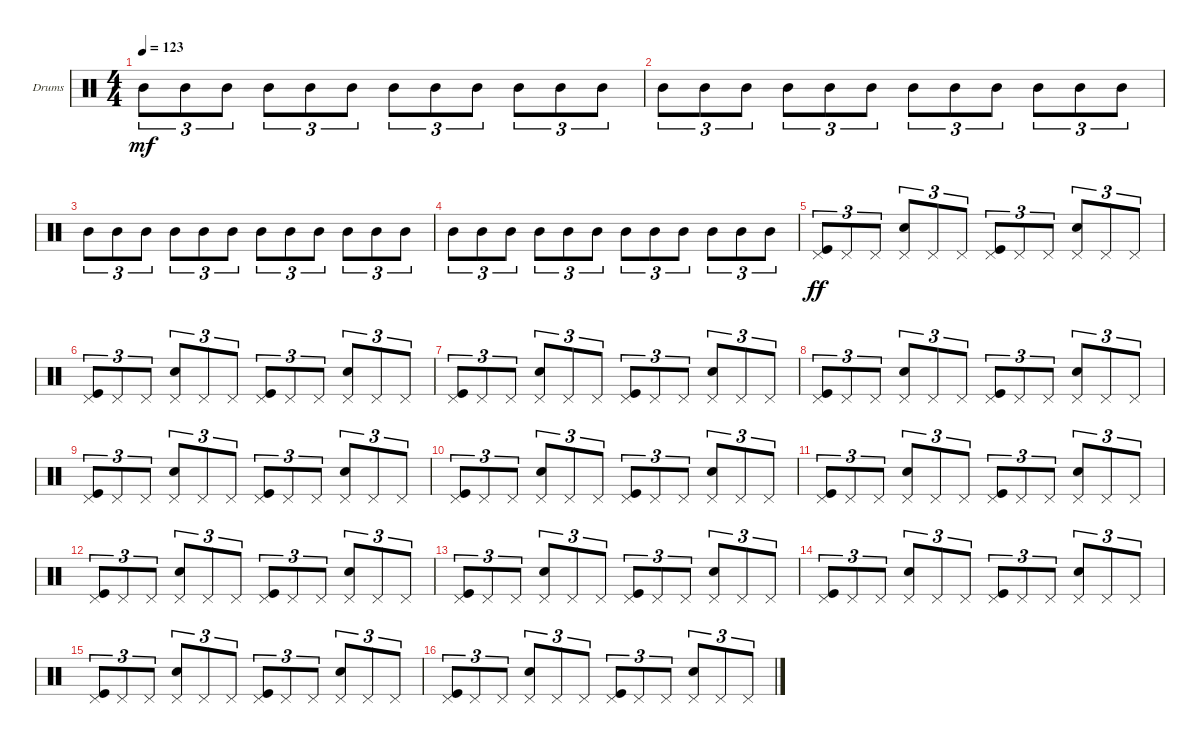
\defaultSystemsLayout 4
\bracketExtendMode groupsimilarinstruments
\firstSystemTrackNameOrientation horizontal
\otherSystemsTrackNameOrientation horizontal
\track ("Drumkit" "Drums") {instrument percussion}
\staff {score}
\articulation defaults
\ts (4 4)
\tempo 123
\clef neutral
\scale
0.333333
\ks c "Mid Tom (hit)".8{tu (3 2) dy mf} "Mid Tom (hit)".8{tu (3 2)} "Mid Tom (hit)".8{tu (3 2)} "Mid Tom (hit)".8{tu (3 2)} "Mid Tom (hit)".8{tu (3 2)} "Mid Tom (hit)".8{tu (3 2)} "Mid Tom (hit)".8{tu (3 2)} "Mid Tom (hit)".8{tu (3 2)} "Mid Tom (hit)".8{tu (3 2)} "Mid Tom (hit)".8{tu (3 2)} "Mid Tom (hit)".8{tu (3 2)} "Mid Tom (hit)".8{tu (3 2)}
|
\scale
0.333333 "Mid Tom (hit)".8{tu (3 2)} "Mid Tom (hit)".8{tu (3 2)} "Mid Tom (hit)".8{tu (3 2)} "Mid Tom (hit)".8{tu (3 2)} "Mid Tom (hit)".8{tu (3 2)} "Mid Tom (hit)".8{tu (3 2)} "Mid Tom (hit)".8{tu (3 2)} "Mid Tom (hit)".8{tu (3 2)} "Mid Tom (hit)".8{tu (3 2)} "Mid Tom (hit)".8{tu (3 2)} "Mid Tom (hit)".8{tu (3 2)} "Mid Tom (hit)".8{tu (3 2)} |
\scale
0.333333 "Mid Tom (hit)".8{tu (3 2)} "Mid Tom (hit)".8{tu (3 2)} "Mid Tom (hit)".8{tu (3 2)} "Mid Tom (hit)".8{tu (3 2)} "Mid Tom (hit)".8{tu (3 2)} "Mid Tom (hit)".8{tu (3 2)} "Mid Tom (hit)".8{tu (3 2)} "Mid Tom (hit)".8{tu (3 2)} "Mid Tom (hit)".8{tu (3 2)} "Mid Tom (hit)".8{tu (3 2)} "Mid Tom (hit)".8{tu (3 2)} "Mid Tom (hit)".8{tu (3 2)} |
\scale
0.333333 "Mid Tom (hit)".8{tu (3 2)} "Mid Tom (hit)".8{tu (3 2)} "Mid Tom (hit)".8{tu (3 2)} "Mid Tom (hit)".8{tu (3 2)} "Mid Tom (hit)".8{tu (3 2)} "Mid Tom (hit)".8{tu (3 2)} "Mid Tom (hit)".8{tu (3 2)} "Mid Tom (hit)".8{tu (3 2)} "Mid Tom (hit)".8{tu (3 2)} "Mid Tom (hit)".8{tu (3 2)} "Mid Tom (hit)".8{tu (3 2)} "Mid Tom (hit)".8{tu (3 2)} |
("Kick (hit)" "Pedal Hi-Hat (hit)").8{tu (3 2) dy ff} "Pedal Hi-Hat (hit)".8{tu (3 2)} "Pedal Hi-Hat (hit)".8{tu (3 2)} ("Snare (hit) 2" "Pedal Hi-Hat (hit)").8{tu (3 2)} "Pedal Hi-Hat (hit)".8{tu (3 2)} "Pedal Hi-Hat (hit)".8{tu (3 2)} ("Kick (hit)" "Pedal Hi-Hat (hit)").8{tu (3 2)} "Pedal Hi-Hat (hit)".8{tu (3 2)} "Pedal Hi-Hat (hit)".8{tu (3 2)} ("Snare (hit) 2" "Pedal Hi-Hat (hit)").8{tu (3 2)} "Pedal Hi-Hat (hit)".8{tu (3 2)} "Pedal Hi-Hat (hit)".8{tu (3 2)} |
("Kick (hit)" "Pedal Hi-Hat (hit)").8{tu (3 2)} "Pedal Hi-Hat (hit)".8{tu (3 2)} "Pedal Hi-Hat (hit)".8{tu (3 2)} ("Snare (hit) 2" "Pedal Hi-Hat (hit)").8{tu (3 2)} "Pedal Hi-Hat (hit)".8{tu (3 2)} "Pedal Hi-Hat (hit)".8{tu (3 2)} ("Kick (hit)" "Pedal Hi-Hat (hit)").8{tu (3 2)} "Pedal Hi-Hat (hit)".8{tu (3 2)} "Pedal Hi-Hat (hit)".8{tu (3 2)} ("Snare (hit) 2" "Pedal Hi-Hat (hit)").8{tu (3 2)} "Pedal Hi-Hat (hit)".8{tu (3 2)} "Pedal Hi-Hat (hit)".8{tu (3 2)} |
("Kick (hit)" "Pedal Hi-Hat (hit)").8{tu (3 2)} "Pedal Hi-Hat (hit)".8{tu (3 2)} "Pedal Hi-Hat (hit)".8{tu (3 2)} ("Snare (hit) 2" "Pedal Hi-Hat (hit)").8{tu (3 2)} "Pedal Hi-Hat (hit)".8{tu (3 2)} "Pedal Hi-Hat (hit)".8{tu (3 2)} ("Kick (hit)" "Pedal Hi-Hat (hit)").8{tu (3 2)} "Pedal Hi-Hat (hit)".8{tu (3 2)} "Pedal Hi-Hat (hit)".8{tu (3 2)} ("Snare (hit) 2" "Pedal Hi-Hat (hit)").8{tu (3 2)} "Pedal Hi-Hat (hit)".8{tu (3 2)} "Pedal Hi-Hat (hit)".8{tu (3 2)} |
("Kick (hit)" "Pedal Hi-Hat (hit)").8{tu (3 2)} "Pedal Hi-Hat (hit)".8{tu (3 2)} "Pedal Hi-Hat (hit)".8{tu (3 2)} ("Snare (hit) 2" "Pedal Hi-Hat (hit)").8{tu (3 2)} "Pedal Hi-Hat (hit)".8{tu (3 2)} "Pedal Hi-Hat (hit)".8{tu (3 2)} ("Kick (hit)" "Pedal Hi-Hat (hit)").8{tu (3 2)} "Pedal Hi-Hat (hit)".8{tu (3 2)} "Pedal Hi-Hat (hit)".8{tu (3 2)} ("Snare (hit) 2" "Pedal Hi-Hat (hit)").8{tu (3 2)} "Pedal Hi-Hat (hit)".8{tu (3 2)} "Pedal Hi-Hat (hit)".8{tu (3 2)} |
("Kick (hit)" "Pedal Hi-Hat (hit)").8{tu (3 2)} "Pedal Hi-Hat (hit)".8{tu (3 2)} "Pedal Hi-Hat (hit)".8{tu (3 2)} ("Snare (hit) 2" "Pedal Hi-Hat (hit)").8{tu (3 2)} "Pedal Hi-Hat (hit)".8{tu (3 2)} "Pedal Hi-Hat (hit)".8{tu (3 2)} ("Kick (hit)" "Pedal Hi-Hat (hit)").8{tu (3 2)} "Pedal Hi-Hat (hit)".8{tu (3 2)} "Pedal Hi-Hat (hit)".8{tu (3 2)} ("Snare (hit) 2" "Pedal Hi-Hat (hit)").8{tu (3 2)} "Pedal Hi-Hat (hit)".8{tu (3 2)} "Pedal Hi-Hat (hit)".8{tu (3 2)} |
("Kick (hit)" "Pedal Hi-Hat (hit)").8{tu (3 2)} "Pedal Hi-Hat (hit)".8{tu (3 2)} "Pedal Hi-Hat (hit)".8{tu (3 2)} ("Snare (hit) 2" "Pedal Hi-Hat (hit)").8{tu (3 2)} "Pedal Hi-Hat (hit)".8{tu (3 2)} "Pedal Hi-Hat (hit)".8{tu (3 2)} ("Kick (hit)" "Pedal Hi-Hat (hit)").8{tu (3 2)} "Pedal Hi-Hat (hit)".8{tu (3 2)} "Pedal Hi-Hat (hit)".8{tu (3 2)} ("Snare (hit) 2" "Pedal Hi-Hat (hit)").8{tu (3 2)} "Pedal Hi-Hat (hit)".8{tu (3 2)} "Pedal Hi-Hat (hit)".8{tu (3 2)} |
("Kick (hit)" "Pedal Hi-Hat (hit)").8{tu (3 2)} "Pedal Hi-Hat (hit)".8{tu (3 2)} "Pedal Hi-Hat (hit)".8{tu (3 2)} ("Snare (hit) 2" "Pedal Hi-Hat (hit)").8{tu (3 2)} "Pedal Hi-Hat (hit)".8{tu (3 2)} "Pedal Hi-Hat (hit)".8{tu (3 2)} ("Kick (hit)" "Pedal Hi-Hat (hit)").8{tu (3 2)} "Pedal Hi-Hat (hit)".8{tu (3 2)} "Pedal Hi-Hat (hit)".8{tu (3 2)} ("Snare (hit) 2" "Pedal Hi-Hat (hit)").8{tu (3 2)} "Pedal Hi-Hat (hit)".8{tu (3 2)} "Pedal Hi-Hat (hit)".8{tu (3 2)} |
("Kick (hit)" "Pedal Hi-Hat (hit)").8{tu (3 2)} "Pedal Hi-Hat (hit)".8{tu (3 2)} "Pedal Hi-Hat (hit)".8{tu (3 2)} ("Snare (hit) 2" "Pedal Hi-Hat (hit)").8{tu (3 2)} "Pedal Hi-Hat (hit)".8{tu (3 2)} "Pedal Hi-Hat (hit)".8{tu (3 2)} ("Kick (hit)" "Pedal Hi-Hat (hit)").8{tu (3 2)} "Pedal Hi-Hat (hit)".8{tu (3 2)} "Pedal Hi-Hat (hit)".8{tu (3 2)} ("Snare (hit) 2" "Pedal Hi-Hat (hit)").8{tu (3 2)} "Pedal Hi-Hat (hit)".8{tu (3 2)} "Pedal Hi-Hat (hit)".8{tu (3 2)} |
("Kick (hit)" "Pedal Hi-Hat (hit)").8{tu (3 2)} "Pedal Hi-Hat (hit)".8{tu (3 2)} "Pedal Hi-Hat (hit)".8{tu (3 2)} ("Snare (hit) 2" "Pedal Hi-Hat (hit)").8{tu (3 2)} "Pedal Hi-Hat (hit)".8{tu (3 2)} "Pedal Hi-Hat (hit)".8{tu (3 2)} ("Kick (hit)" "Pedal Hi-Hat (hit)").8{tu (3 2)} "Pedal Hi-Hat (hit)".8{tu (3 2)} "Pedal Hi-Hat (hit)".8{tu (3 2)} ("Snare (hit) 2" "Pedal Hi-Hat (hit)").8{tu (3 2)} "Pedal Hi-Hat (hit)".8{tu (3 2)} "Pedal Hi-Hat (hit)".8{tu (3 2)} |
("Kick (hit)" "Pedal Hi-Hat (hit)").8{tu (3 2)} "Pedal Hi-Hat (hit)".8{tu (3 2)} "Pedal Hi-Hat (hit)".8{tu (3 2)} ("Snare (hit) 2" "Pedal Hi-Hat (hit)").8{tu (3 2)} "Pedal Hi-Hat (hit)".8{tu (3 2)} "Pedal Hi-Hat (hit)".8{tu (3 2)} ("Kick (hit)" "Pedal Hi-Hat (hit)").8{tu (3 2)} "Pedal Hi-Hat (hit)".8{tu (3 2)} "Pedal Hi-Hat (hit)".8{tu (3 2)} ("Snare (hit) 2" "Pedal Hi-Hat (hit)").8{tu (3 2)} "Pedal Hi-Hat (hit)".8{tu (3 2)} "Pedal Hi-Hat (hit)".8{tu (3 2)} |
("Kick (hit)" "Pedal Hi-Hat (hit)").8{tu (3 2)} "Pedal Hi-Hat (hit)".8{tu (3 2)} "Pedal Hi-Hat (hit)".8{tu (3 2)} ("Snare (hit) 2" "Pedal Hi-Hat (hit)").8{tu (3 2)} "Pedal Hi-Hat (hit)".8{tu (3 2)} "Pedal Hi-Hat (hit)".8{tu (3 2)} ("Kick (hit)" "Pedal Hi-Hat (hit)").8{tu (3 2)} "Pedal Hi-Hat (hit)".8{tu (3 2)} "Pedal Hi-Hat (hit)".8{tu (3 2)} ("Snare (hit) 2" "Pedal Hi-Hat (hit)").8{tu (3 2)} "Pedal Hi-Hat (hit)".8{tu (3 2)} "Pedal Hi-Hat (hit)".8{tu (3 2)} |
("Kick (hit)" "Pedal Hi-Hat (hit)").8{tu (3 2)} "Pedal Hi-Hat (hit)".8{tu (3 2)} "Pedal Hi-Hat (hit)".8{tu (3 2)} ("Snare (hit) 2" "Pedal Hi-Hat (hit)").8{tu (3 2)} "Pedal Hi-Hat (hit)".8{tu (3 2)} "Pedal Hi-Hat (hit)".8{tu (3 2)} ("Kick (hit)" "Pedal Hi-Hat (hit)").8{tu (3 2)} "Pedal Hi-Hat (hit)".8{tu (3 2)} "Pedal Hi-Hat (hit)".8{tu (3 2)} ("Snare (hit) 2" "Pedal Hi-Hat (hit)").8{tu (3 2)} "Pedal Hi-Hat (hit)".8{tu (3 2)} "Pedal Hi-Hat (hit)".8{tu (3 2)}
